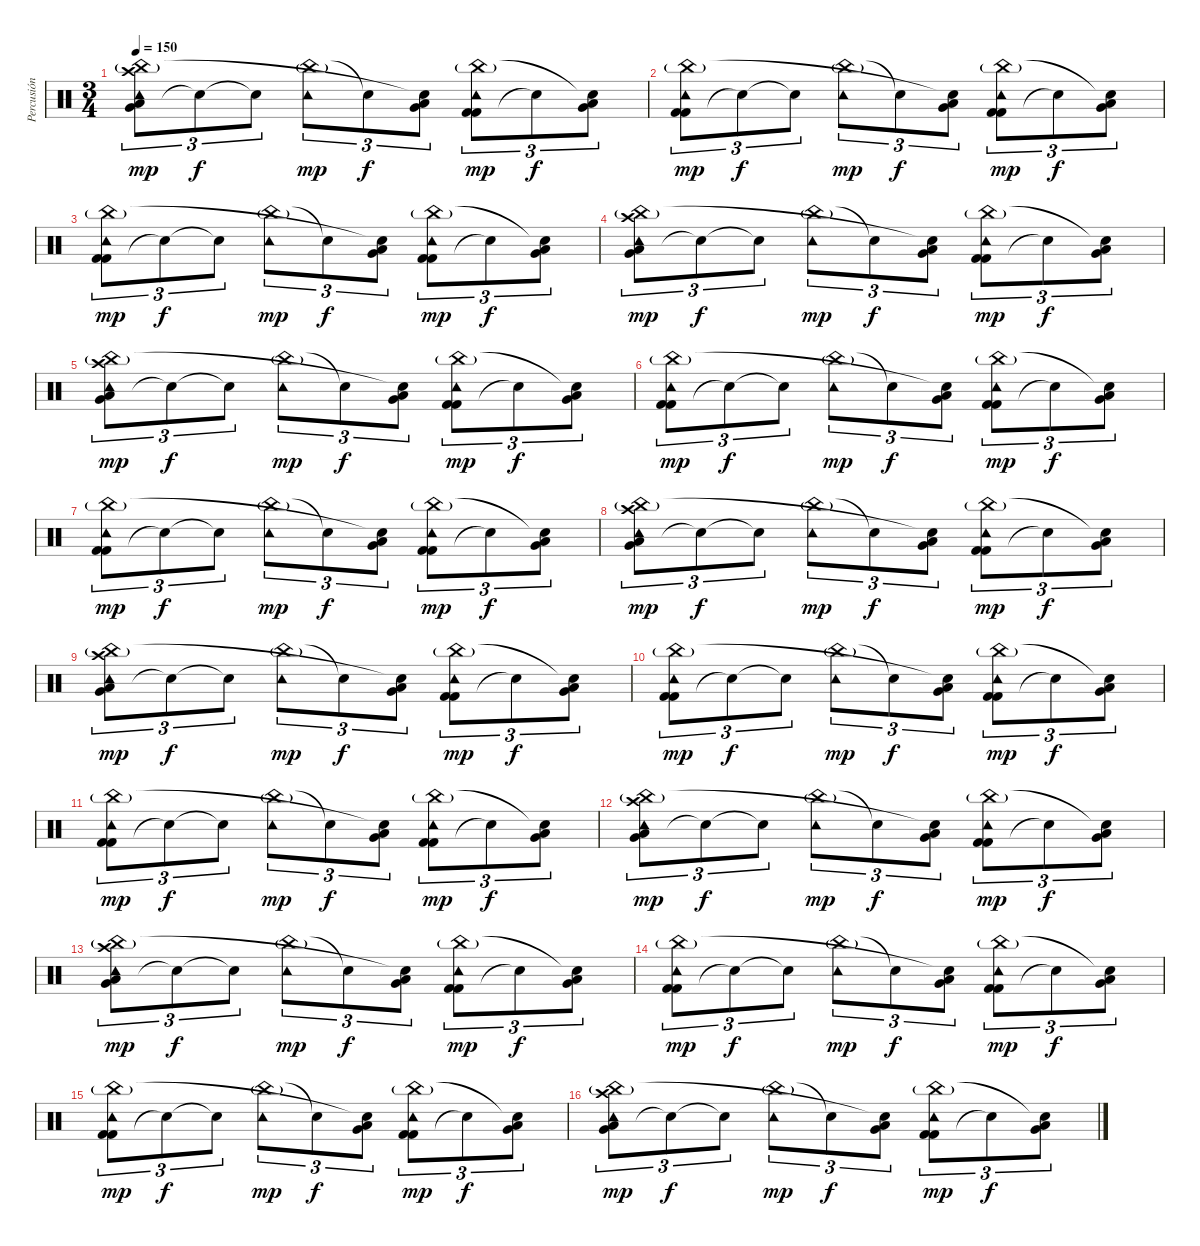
\track ("Percusión" "Percusión") {instrument percussion}
\staff {score}
\articulation defaults
\ts (3 4)
\tempo 150
\clef neutral
\ks c
("Low Floor Tom (hit)" "Very Low Tom (hit)" "China (hit)"{g} "Crash high (hit)" "Tambourine (hit)").8{tu (3 2) dy mp} "Snare (hit)"{t}.8{tu (3 2) dy f} "Snare (hit)"{t}.8{tu (3 2)} ("China (hit)"{g} "Tambourine (hit)").8{tu (3 2) dy mp} "Snare (hit)"{t}.8{tu (3 2) dy f} ("Low Floor Tom (hit)" "Very Low Tom (hit)" "Snare (hit)"{t}).8{tu (3 2)} ("Kick (hit) 2" "Kick (hit) 2" "China (hit)"{g} "Tambourine (hit)").8{tu (3 2) dy mp} "Snare (hit)"{t}.8{tu (3 2) dy f} ("Low Floor Tom (hit)" "Very Low Tom (hit)" "Snare (hit)"{t}).8{tu (3 2)} |
("Kick (hit) 2" "Kick (hit) 2" "China (hit)"{g} "Tambourine (hit)").8{tu (3 2) dy mp} "Snare (hit)"{t}.8{tu (3 2) dy f} "Snare (hit)"{t}.8{tu (3 2)} ("China (hit)"{g} "Tambourine (hit)").8{tu (3 2) dy mp} "Snare (hit)"{t}.8{tu (3 2) dy f} ("Low Floor Tom (hit)" "Very Low Tom (hit)" "Snare (hit)"{t}).8{tu (3 2)} ("Kick (hit) 2" "Kick (hit) 2" "China (hit)"{g} "Tambourine (hit)").8{tu (3 2) dy mp} "Snare (hit)"{t}.8{tu (3 2) dy f} ("Low Floor Tom (hit)" "Very Low Tom (hit)" "Snare (hit)"{t}).8{tu (3 2)} |
("Kick (hit) 2" "Kick (hit) 2" "China (hit)"{g} "Tambourine (hit)").8{tu (3 2) dy mp} "Snare (hit)"{t}.8{tu (3 2) dy f} "Snare (hit)"{t}.8{tu (3 2)} ("China (hit)"{g} "Tambourine (hit)").8{tu (3 2) dy mp} "Snare (hit)"{t}.8{tu (3 2) dy f} ("Low Floor Tom (hit)" "Very Low Tom (hit)" "Snare (hit)"{t}).8{tu (3 2)} ("Kick (hit) 2" "Kick (hit) 2" "China (hit)"{g} "Tambourine (hit)").8{tu (3 2) dy mp} "Snare (hit)"{t}.8{tu (3 2) dy f} ("Low Floor Tom (hit)" "Very Low Tom (hit)" "Snare (hit)"{t}).8{tu (3 2)} |
("Low Floor Tom (hit)" "Very Low Tom (hit)" "China (hit)"{g} "Crash high (hit)" "Tambourine (hit)").8{tu (3 2) dy mp} "Snare (hit)"{t}.8{tu (3 2) dy f} "Snare (hit)"{t}.8{tu (3 2)} ("China (hit)"{g} "Tambourine (hit)").8{tu (3 2) dy mp} "Snare (hit)"{t}.8{tu (3 2) dy f} ("Low Floor Tom (hit)" "Very Low Tom (hit)" "Snare (hit)"{t}).8{tu (3 2)} ("Kick (hit) 2" "Kick (hit) 2" "China (hit)"{g} "Tambourine (hit)").8{tu (3 2) dy mp} "Snare (hit)"{t}.8{tu (3 2) dy f} ("Low Floor Tom (hit)" "Very Low Tom (hit)" "Snare (hit)"{t}).8{tu (3 2)} |
("Low Floor Tom (hit)" "Very Low Tom (hit)" "China (hit)"{g} "Crash high (hit)" "Tambourine (hit)").8{tu (3 2) dy mp} "Snare (hit)"{t}.8{tu (3 2) dy f} "Snare (hit)"{t}.8{tu (3 2)} ("China (hit)"{g} "Tambourine (hit)").8{tu (3 2) dy mp} "Snare (hit)"{t}.8{tu (3 2) dy f} ("Low Floor Tom (hit)" "Very Low Tom (hit)" "Snare (hit)"{t}).8{tu (3 2)} ("Kick (hit) 2" "Kick (hit) 2" "China (hit)"{g} "Tambourine (hit)").8{tu (3 2) dy mp} "Snare (hit)"{t}.8{tu (3 2) dy f} ("Low Floor Tom (hit)" "Very Low Tom (hit)" "Snare (hit)"{t}).8{tu (3 2)} |
("Kick (hit) 2" "Kick (hit) 2" "China (hit)"{g} "Tambourine (hit)").8{tu (3 2) dy mp} "Snare (hit)"{t}.8{tu (3 2) dy f} "Snare (hit)"{t}.8{tu (3 2)} ("China (hit)"{g} "Tambourine (hit)").8{tu (3 2) dy mp} "Snare (hit)"{t}.8{tu (3 2) dy f} ("Low Floor Tom (hit)" "Very Low Tom (hit)" "Snare (hit)"{t}).8{tu (3 2)} ("Kick (hit) 2" "Kick (hit) 2" "China (hit)"{g} "Tambourine (hit)").8{tu (3 2) dy mp} "Snare (hit)"{t}.8{tu (3 2) dy f} ("Low Floor Tom (hit)" "Very Low Tom (hit)" "Snare (hit)"{t}).8{tu (3 2)} |
("Kick (hit) 2" "Kick (hit) 2" "China (hit)"{g} "Tambourine (hit)").8{tu (3 2) dy mp} "Snare (hit)"{t}.8{tu (3 2) dy f} "Snare (hit)"{t}.8{tu (3 2)} ("China (hit)"{g} "Tambourine (hit)").8{tu (3 2) dy mp} "Snare (hit)"{t}.8{tu (3 2) dy f} ("Low Floor Tom (hit)" "Very Low Tom (hit)" "Snare (hit)"{t}).8{tu (3 2)} ("Kick (hit) 2" "Kick (hit) 2" "China (hit)"{g} "Tambourine (hit)").8{tu (3 2) dy mp} "Snare (hit)"{t}.8{tu (3 2) dy f} ("Low Floor Tom (hit)" "Very Low Tom (hit)" "Snare (hit)"{t}).8{tu (3 2)} |
("Low Floor Tom (hit)" "Very Low Tom (hit)" "China (hit)"{g} "Crash high (hit)" "Tambourine (hit)").8{tu (3 2) dy mp} "Snare (hit)"{t}.8{tu (3 2) dy f} "Snare (hit)"{t}.8{tu (3 2)} ("China (hit)"{g} "Tambourine (hit)").8{tu (3 2) dy mp} "Snare (hit)"{t}.8{tu (3 2) dy f} ("Low Floor Tom (hit)" "Very Low Tom (hit)" "Snare (hit)"{t}).8{tu (3 2)} ("Kick (hit) 2" "Kick (hit) 2" "China (hit)"{g} "Tambourine (hit)").8{tu (3 2) dy mp} "Snare (hit)"{t}.8{tu (3 2) dy f} ("Low Floor Tom (hit)" "Very Low Tom (hit)" "Snare (hit)"{t}).8{tu (3 2)} |
("Low Floor Tom (hit)" "Very Low Tom (hit)" "China (hit)"{g} "Crash high (hit)" "Tambourine (hit)").8{tu (3 2) dy mp} "Snare (hit)"{t}.8{tu (3 2) dy f} "Snare (hit)"{t}.8{tu (3 2)} ("China (hit)"{g} "Tambourine (hit)").8{tu (3 2) dy mp} "Snare (hit)"{t}.8{tu (3 2) dy f} ("Low Floor Tom (hit)" "Very Low Tom (hit)" "Snare (hit)"{t}).8{tu (3 2)} ("Kick (hit) 2" "Kick (hit) 2" "China (hit)"{g} "Tambourine (hit)").8{tu (3 2) dy mp} "Snare (hit)"{t}.8{tu (3 2) dy f} ("Low Floor Tom (hit)" "Very Low Tom (hit)" "Snare (hit)"{t}).8{tu (3 2)} |
("Kick (hit) 2" "Kick (hit) 2" "China (hit)"{g} "Tambourine (hit)").8{tu (3 2) dy mp} "Snare (hit)"{t}.8{tu (3 2) dy f} "Snare (hit)"{t}.8{tu (3 2)} ("China (hit)"{g} "Tambourine (hit)").8{tu (3 2) dy mp} "Snare (hit)"{t}.8{tu (3 2) dy f} ("Low Floor Tom (hit)" "Very Low Tom (hit)" "Snare (hit)"{t}).8{tu (3 2)} ("Kick (hit) 2" "Kick (hit) 2" "China (hit)"{g} "Tambourine (hit)").8{tu (3 2) dy mp} "Snare (hit)"{t}.8{tu (3 2) dy f} ("Low Floor Tom (hit)" "Very Low Tom (hit)" "Snare (hit)"{t}).8{tu (3 2)} |
("Kick (hit) 2" "Kick (hit) 2" "China (hit)"{g} "Tambourine (hit)").8{tu (3 2) dy mp} "Snare (hit)"{t}.8{tu (3 2) dy f} "Snare (hit)"{t}.8{tu (3 2)} ("China (hit)"{g} "Tambourine (hit)").8{tu (3 2) dy mp} "Snare (hit)"{t}.8{tu (3 2) dy f} ("Low Floor Tom (hit)" "Very Low Tom (hit)" "Snare (hit)"{t}).8{tu (3 2)} ("Kick (hit) 2" "Kick (hit) 2" "China (hit)"{g} "Tambourine (hit)").8{tu (3 2) dy mp} "Snare (hit)"{t}.8{tu (3 2) dy f} ("Low Floor Tom (hit)" "Very Low Tom (hit)" "Snare (hit)"{t}).8{tu (3 2)} |
("Low Floor Tom (hit)" "Very Low Tom (hit)" "China (hit)"{g} "Crash high (hit)" "Tambourine (hit)").8{tu (3 2) dy mp} "Snare (hit)"{t}.8{tu (3 2) dy f} "Snare (hit)"{t}.8{tu (3 2)} ("China (hit)"{g} "Tambourine (hit)").8{tu (3 2) dy mp} "Snare (hit)"{t}.8{tu (3 2) dy f} ("Low Floor Tom (hit)" "Very Low Tom (hit)" "Snare (hit)"{t}).8{tu (3 2)} ("Kick (hit) 2" "Kick (hit) 2" "China (hit)"{g} "Tambourine (hit)").8{tu (3 2) dy mp} "Snare (hit)"{t}.8{tu (3 2) dy f} ("Low Floor Tom (hit)" "Very Low Tom (hit)" "Snare (hit)"{t}).8{tu (3 2)} |
("Low Floor Tom (hit)" "Very Low Tom (hit)" "China (hit)"{g} "Crash high (hit)" "Tambourine (hit)").8{tu (3 2) dy mp} "Snare (hit)"{t}.8{tu (3 2) dy f} "Snare (hit)"{t}.8{tu (3 2)} ("China (hit)"{g} "Tambourine (hit)").8{tu (3 2) dy mp} "Snare (hit)"{t}.8{tu (3 2) dy f} ("Low Floor Tom (hit)" "Very Low Tom (hit)" "Snare (hit)"{t}).8{tu (3 2)} ("Kick (hit) 2" "Kick (hit) 2" "China (hit)"{g} "Tambourine (hit)").8{tu (3 2) dy mp} "Snare (hit)"{t}.8{tu (3 2) dy f} ("Low Floor Tom (hit)" "Very Low Tom (hit)" "Snare (hit)"{t}).8{tu (3 2)} |
("Kick (hit) 2" "Kick (hit) 2" "China (hit)"{g} "Tambourine (hit)").8{tu (3 2) dy mp} "Snare (hit)"{t}.8{tu (3 2) dy f} "Snare (hit)"{t}.8{tu (3 2)} ("China (hit)"{g} "Tambourine (hit)").8{tu (3 2) dy mp} "Snare (hit)"{t}.8{tu (3 2) dy f} ("Low Floor Tom (hit)" "Very Low Tom (hit)" "Snare (hit)"{t}).8{tu (3 2)} ("Kick (hit) 2" "Kick (hit) 2" "China (hit)"{g} "Tambourine (hit)").8{tu (3 2) dy mp} "Snare (hit)"{t}.8{tu (3 2) dy f} ("Low Floor Tom (hit)" "Very Low Tom (hit)" "Snare (hit)"{t}).8{tu (3 2)} |
("Kick (hit) 2" "Kick (hit) 2" "China (hit)"{g} "Tambourine (hit)").8{tu (3 2) dy mp} "Snare (hit)"{t}.8{tu (3 2) dy f} "Snare (hit)"{t}.8{tu (3 2)} ("China (hit)"{g} "Tambourine (hit)").8{tu (3 2) dy mp} "Snare (hit)"{t}.8{tu (3 2) dy f} ("Low Floor Tom (hit)" "Very Low Tom (hit)" "Snare (hit)"{t}).8{tu (3 2)} ("Kick (hit) 2" "Kick (hit) 2" "China (hit)"{g} "Tambourine (hit)").8{tu (3 2) dy mp} "Snare (hit)"{t}.8{tu (3 2) dy f} ("Low Floor Tom (hit)" "Very Low Tom (hit)" "Snare (hit)"{t}).8{tu (3 2)} |
("Low Floor Tom (hit)" "Very Low Tom (hit)" "China (hit)"{g} "Crash high (hit)" "Tambourine (hit)").8{tu (3 2) dy mp} "Snare (hit)"{t}.8{tu (3 2) dy f} "Snare (hit)"{t}.8{tu (3 2)} ("China (hit)"{g} "Tambourine (hit)").8{tu (3 2) dy mp} "Snare (hit)"{t}.8{tu (3 2) dy f} ("Low Floor Tom (hit)" "Very Low Tom (hit)" "Snare (hit)"{t}).8{tu (3 2)} ("Kick (hit) 2" "Kick (hit) 2" "China (hit)"{g} "Tambourine (hit)").8{tu (3 2) dy mp} "Snare (hit)"{t}.8{tu (3 2) dy f} ("Low Floor Tom (hit)" "Very Low Tom (hit)" "Snare (hit)"{t}).8{tu (3 2)}
